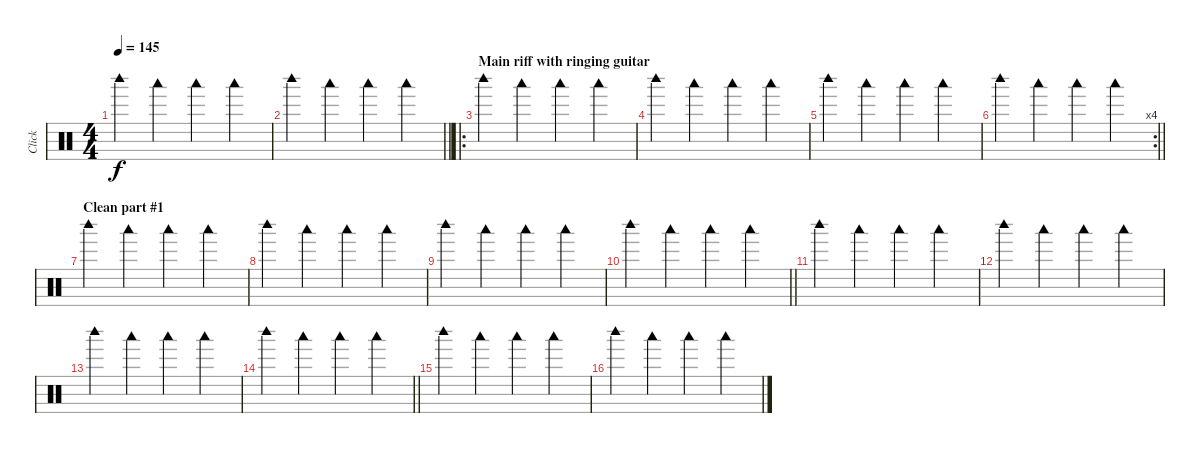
\track ("Click" "Click") {mute instrument percussion}
\staff {score}
\articulation defaults
\ts (4 4)
\tempo 145
\clef neutral
\ks c "Woodblock high (hit)".4{dy f} "Woodblock low (hit)".4 "Woodblock low (hit)".4 "Woodblock low (hit)".4
|
\barLineRight lightlight "Woodblock high (hit)".4 "Woodblock low (hit)".4 "Woodblock low (hit)".4 "Woodblock low (hit)".4
|
\ro
\section ("" "Main riff with ringing guitar")
"Woodblock high (hit)".4 "Woodblock low (hit)".4 "Woodblock low (hit)".4 "Woodblock low (hit)".4 |
"Woodblock high (hit)".4 "Woodblock low (hit)".4 "Woodblock low (hit)".4 "Woodblock low (hit)".4 |
"Woodblock high (hit)".4 "Woodblock low (hit)".4 "Woodblock low (hit)".4 "Woodblock low (hit)".4 |
\rc 4
\barLineRight lightlight "Woodblock high (hit)".4 "Woodblock low (hit)".4 "Woodblock low (hit)".4 "Woodblock low (hit)".4
|
\section ("" "Clean part #1")
"Woodblock high (hit)".4 "Woodblock low (hit)".4 "Woodblock low (hit)".4 "Woodblock low (hit)".4 |
"Woodblock high (hit)".4 "Woodblock low (hit)".4 "Woodblock low (hit)".4 "Woodblock low (hit)".4 |
"Woodblock high (hit)".4 "Woodblock low (hit)".4 "Woodblock low (hit)".4 "Woodblock low (hit)".4 |
\barLineRight lightlight "Woodblock high (hit)".4 "Woodblock low (hit)".4 "Woodblock low (hit)".4 "Woodblock low (hit)".4
|
"Woodblock high (hit)".4 "Woodblock low (hit)".4 "Woodblock low (hit)".4 "Woodblock low (hit)".4 |
"Woodblock high (hit)".4 "Woodblock low (hit)".4 "Woodblock low (hit)".4 "Woodblock low (hit)".4 |
"Woodblock high (hit)".4 "Woodblock low (hit)".4 "Woodblock low (hit)".4 "Woodblock low (hit)".4 |
\barLineRight lightlight "Woodblock high (hit)".4 "Woodblock low (hit)".4 "Woodblock low (hit)".4 "Woodblock low (hit)".4
|
"Woodblock high (hit)".4 "Woodblock low (hit)".4 "Woodblock low (hit)".4 "Woodblock low (hit)".4 |
"Woodblock high (hit)".4 "Woodblock low (hit)".4 "Woodblock low (hit)".4 "Woodblock low (hit)".4
